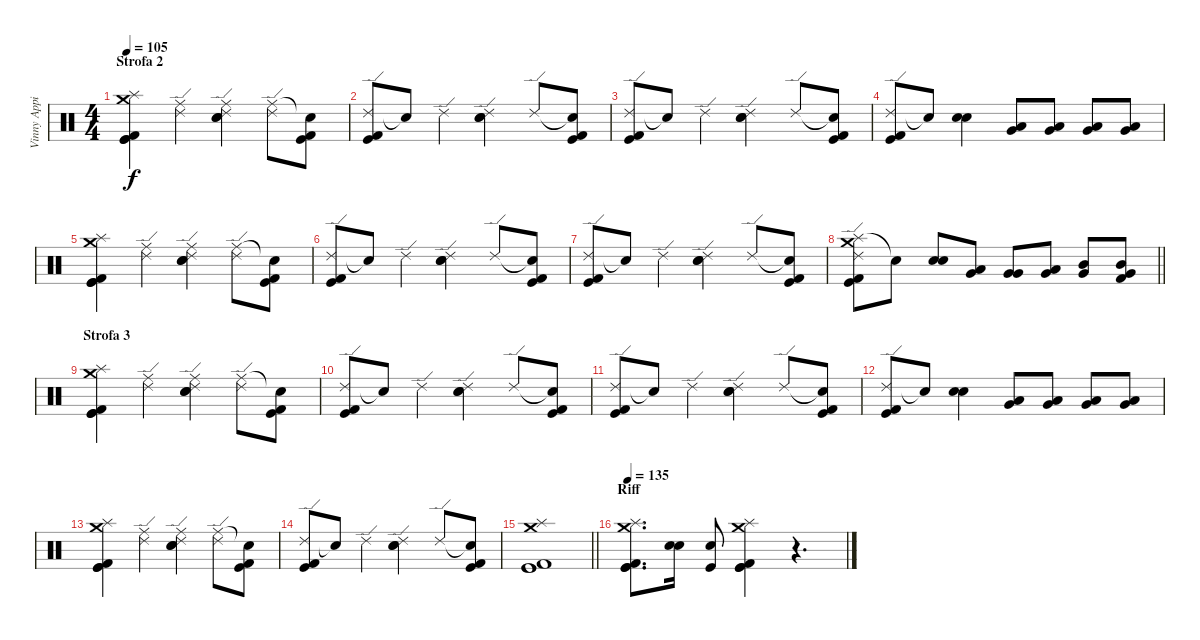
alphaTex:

\track ("Vinny Appice" "Vinny Appi") {instrument percussion}
\staff {score}
\articulation defaults
\ts (4 4)
\section ("" "Strofa 2")
\tempo 105
\clef neutral
\ks c
("Crash medium (hit)" "Splash (hit)" "Kick (hit)" "Kick (hit) 2" "Kick (hit)").4{dy f} ("Ride (middle)" "Ride (edge) 2").4 ("Ride (middle)" "Ride (edge) 2" "Snare (hit) 2" "Snare (hit) 2").4 ("Ride (middle)" "Ride (edge) 2").8 ("Snare (hit)"{t} "Kick (hit) 2" "Kick (hit)").8 |
("Ride (edge) 2" "Kick (hit) 2" "Kick (hit)").8 "Snare (hit)"{t}.8 "Ride (edge) 2".4 ("Ride (edge) 2" "Snare (hit) 2" "Snare (hit) 2").4 "Ride (edge) 2".8 ("Snare (hit)"{t} "Kick (hit) 2" "Kick (hit)").8 |
("Ride (edge) 2" "Kick (hit) 2" "Kick (hit)").8 "Snare (hit)"{t}.8 "Ride (edge) 2".4 ("Ride (edge) 2" "Snare (hit) 2" "Snare (hit) 2").4 "Ride (edge) 2".8 ("Snare (hit)"{t} "Kick (hit) 2" "Kick (hit)").8 |
("Ride (edge) 2" "Kick (hit) 2" "Kick (hit)").8 "Snare (hit)"{t}.8 ("Electric Snare (hit)" "Snare (hit) 2").4{bu 240} ("Low Tom (hit)" "Very Low Tom (hit)").8 ("Low Tom (hit)" "Very Low Tom (hit)").8 ("Low Tom (hit)" "Very Low Tom (hit)").8 ("Low Tom (hit)" "Very Low Tom (hit)").8 |
("Crash medium (hit)" "Splash (hit)" "Kick (hit)" "Kick (hit) 2" "Kick (hit)").4 ("Ride (middle)" "Ride (edge) 2").4 ("Ride (middle)" "Ride (edge) 2" "Snare (hit) 2" "Snare (hit) 2").4 ("Ride (middle)" "Ride (edge) 2").8 ("Snare (hit)"{t} "Kick (hit) 2" "Kick (hit)").8 |
("Ride (edge) 2" "Kick (hit) 2" "Kick (hit)").8 "Snare (hit)"{t}.8 "Ride (edge) 2".4 ("Ride (edge) 2" "Snare (hit) 2" "Snare (hit) 2").4 "Ride (edge) 2".8 ("Snare (hit)"{t} "Kick (hit) 2" "Kick (hit)").8 |
("Ride (edge) 2" "Kick (hit) 2" "Kick (hit)").8 "Snare (hit)"{t}.8 "Ride (edge) 2".4 ("Ride (edge) 2" "Snare (hit) 2" "Snare (hit) 2").4 "Ride (edge) 2".8 ("Snare (hit)"{t} "Kick (hit) 2" "Kick (hit)").8 |
\barLineRight lightlight
("Splash (hit)" "Ride (edge) 2" "Crash medium (hit)" "Kick (hit) 2" "Kick (hit)").8 "Snare (hit)"{t}.8 ("Electric Snare (hit)" "Snare (hit) 2").8{bu 240} ("Very Low Tom (hit)" "Low Floor Tom (hit)").8 ("Very Low Tom (hit)" "Very Low Tom (hit)").8 ("Very Low Tom (hit)" "Low Tom (hit)").8 ("Very Low Tom (hit)" "Mid Tom (hit)").8 ("Very Low Tom (hit)" "Mid Tom (hit)" "Kick (hit) 2").8 |
\section ("" "Strofa 3")
("Crash medium (hit)" "Splash (hit)" "Kick (hit)" "Kick (hit) 2" "Kick (hit)").4 ("Ride (middle)" "Ride (edge) 2").4 ("Ride (middle)" "Ride (edge) 2" "Snare (hit) 2" "Snare (hit) 2").4 ("Ride (middle)" "Ride (edge) 2").8 ("Snare (hit)"{t} "Kick (hit) 2" "Kick (hit)").8 |
("Ride (edge) 2" "Kick (hit) 2" "Kick (hit)").8 "Snare (hit)"{t}.8 "Ride (edge) 2".4 ("Ride (edge) 2" "Snare (hit) 2" "Snare (hit) 2").4 "Ride (edge) 2".8 ("Snare (hit)"{t} "Kick (hit) 2" "Kick (hit)").8 |
("Ride (edge) 2" "Kick (hit) 2" "Kick (hit)").8 "Snare (hit)"{t}.8 "Ride (edge) 2".4 ("Ride (edge) 2" "Snare (hit) 2" "Snare (hit) 2").4 "Ride (edge) 2".8 ("Snare (hit)"{t} "Kick (hit) 2" "Kick (hit)").8 |
("Ride (edge) 2" "Kick (hit) 2" "Kick (hit)").8 "Snare (hit)"{t}.8 ("Electric Snare (hit)" "Snare (hit) 2").4{bu 240} ("Low Tom (hit)" "Very Low Tom (hit)").8 ("Low Tom (hit)" "Very Low Tom (hit)").8 ("Low Tom (hit)" "Very Low Tom (hit)").8 ("Low Tom (hit)" "Very Low Tom (hit)").8 |
("Crash medium (hit)" "Splash (hit)" "Kick (hit)" "Kick (hit) 2" "Kick (hit)").4 ("Ride (middle)" "Ride (edge) 2").4 ("Ride (middle)" "Ride (edge) 2" "Snare (hit) 2" "Snare (hit) 2").4 ("Ride (middle)" "Ride (edge) 2").8 ("Snare (hit)"{t} "Kick (hit) 2" "Kick (hit)").8 |
("Ride (edge) 2" "Kick (hit) 2" "Kick (hit)").8 "Snare (hit)"{t}.8 "Ride (edge) 2".4 ("Ride (edge) 2" "Snare (hit) 2" "Snare (hit) 2").4 "Ride (edge) 2".8 ("Snare (hit)"{t} "Kick (hit) 2" "Kick (hit)").8 |
\barLineRight lightlight
("Crash medium (hit)" "Splash (hit)" "Kick (hit)" "Kick (hit) 2" "Kick (hit)").1 |
\section ("" "Riff")
\tempo 135
("Crash medium (hit)" "Splash (hit)" "Kick (hit)" "Kick (hit) 2" "Kick (hit)").8{d} ("Snare (hit) 2" "Electric Snare (hit)").16 ("Kick (hit)" "Electric Snare (hit)").8 ("Crash medium (hit)" "Splash (hit)" "Kick (hit)" "Kick (hit) 2" "Kick (hit)").4 r.4{d}
